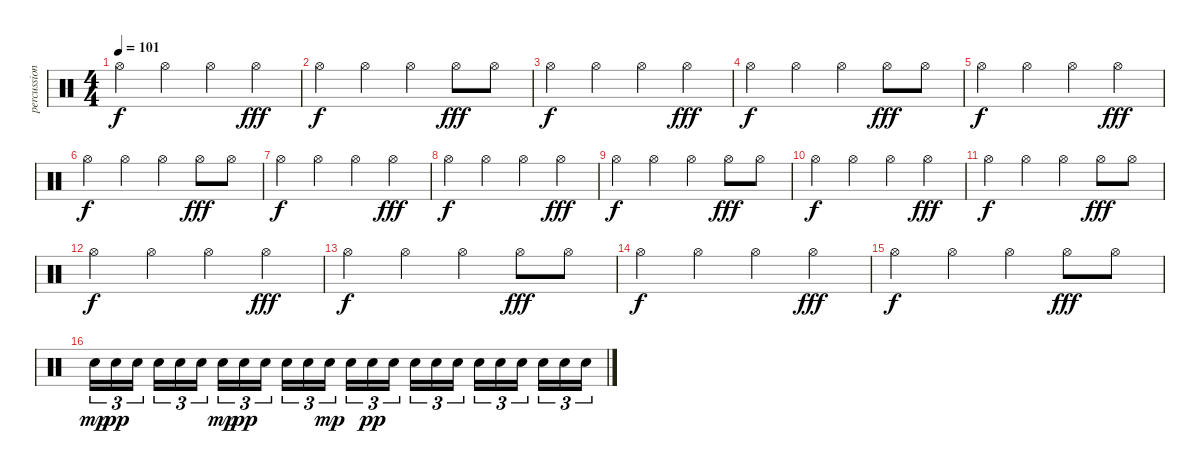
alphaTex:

\track ("percussion" "percussion") {instrument percussion}
\staff {score}
\articulation defaults
\ts (4 4)
\tempo 101
\clef neutral
\ks c "Hi-Hat (open)".4{dy f} "Hi-Hat (open)".4 "Hi-Hat (open)".4 "Hi-Hat (open)".4{dy fff}
|
"Hi-Hat (open)".4{dy f} "Hi-Hat (open)".4 "Hi-Hat (open)".4 "Hi-Hat (open)".8{dy fff} "Hi-Hat (open)".8 |
"Hi-Hat (open)".4{dy f} "Hi-Hat (open)".4 "Hi-Hat (open)".4 "Hi-Hat (open)".4{dy fff} |
"Hi-Hat (open)".4{dy f} "Hi-Hat (open)".4 "Hi-Hat (open)".4 "Hi-Hat (open)".8{dy fff} "Hi-Hat (open)".8 |
"Hi-Hat (open)".4{dy f} "Hi-Hat (open)".4 "Hi-Hat (open)".4 "Hi-Hat (open)".4{dy fff} |
"Hi-Hat (open)".4{dy f} "Hi-Hat (open)".4 "Hi-Hat (open)".4 "Hi-Hat (open)".8{dy fff} "Hi-Hat (open)".8 |
"Hi-Hat (open)".4{dy f} "Hi-Hat (open)".4 "Hi-Hat (open)".4 "Hi-Hat (open)".4{dy fff} |
"Hi-Hat (open)".4{dy f} "Hi-Hat (open)".4 "Hi-Hat (open)".4 "Hi-Hat (open)".4{dy fff} |
"Hi-Hat (open)".4{dy f} "Hi-Hat (open)".4 "Hi-Hat (open)".4 "Hi-Hat (open)".8{dy fff} "Hi-Hat (open)".8 |
"Hi-Hat (open)".4{dy f} "Hi-Hat (open)".4 "Hi-Hat (open)".4 "Hi-Hat (open)".4{dy fff} |
"Hi-Hat (open)".4{dy f} "Hi-Hat (open)".4 "Hi-Hat (open)".4 "Hi-Hat (open)".8{dy fff} "Hi-Hat (open)".8 |
"Hi-Hat (open)".4{dy f} "Hi-Hat (open)".4 "Hi-Hat (open)".4 "Hi-Hat (open)".4{dy fff} |
"Hi-Hat (open)".4{dy f} "Hi-Hat (open)".4 "Hi-Hat (open)".4 "Hi-Hat (open)".8{dy fff} "Hi-Hat (open)".8 |
"Hi-Hat (open)".4{dy f} "Hi-Hat (open)".4 "Hi-Hat (open)".4 "Hi-Hat (open)".4{dy fff} |
"Hi-Hat (open)".4{dy f} "Hi-Hat (open)".4 "Hi-Hat (open)".4 "Hi-Hat (open)".8{dy fff} "Hi-Hat (open)".8 |
"Electric Snare (hit)".16{tu (3 2) dy mp} "Electric Snare (hit)".16{tu (3 2) dy pp} "Electric Snare (hit)".16{tu (3 2)} "Electric Snare (hit)".16{tu (3 2)} "Electric Snare (hit)".16{tu (3 2)} "Electric Snare (hit)".16{tu (3 2)} "Electric Snare (hit)".16{tu (3 2) dy mp} "Electric Snare (hit)".16{tu (3 2) dy pp} "Electric Snare (hit)".16{tu (3 2)} "Electric Snare (hit)".16{tu (3 2)} "Electric Snare (hit)".16{tu (3 2)} "Electric Snare (hit)".16{tu (3 2) dy mp} "Electric Snare (hit)".16{tu (3 2)} "Electric Snare (hit)".16{tu (3 2) dy pp} "Electric Snare (hit)".16{tu (3 2)} "Electric Snare (hit)".16{tu (3 2)} "Electric Snare (hit)".16{tu (3 2)} "Electric Snare (hit)".16{tu (3 2)} "Electric Snare (hit)".16{tu (3 2)} "Electric Snare (hit)".16{tu (3 2)} "Electric Snare (hit)".16{tu (3 2)} "Electric Snare (hit)".16{tu (3 2)} "Electric Snare (hit)".16{tu (3 2)} "Electric Snare (hit)".16{tu (3 2)}
